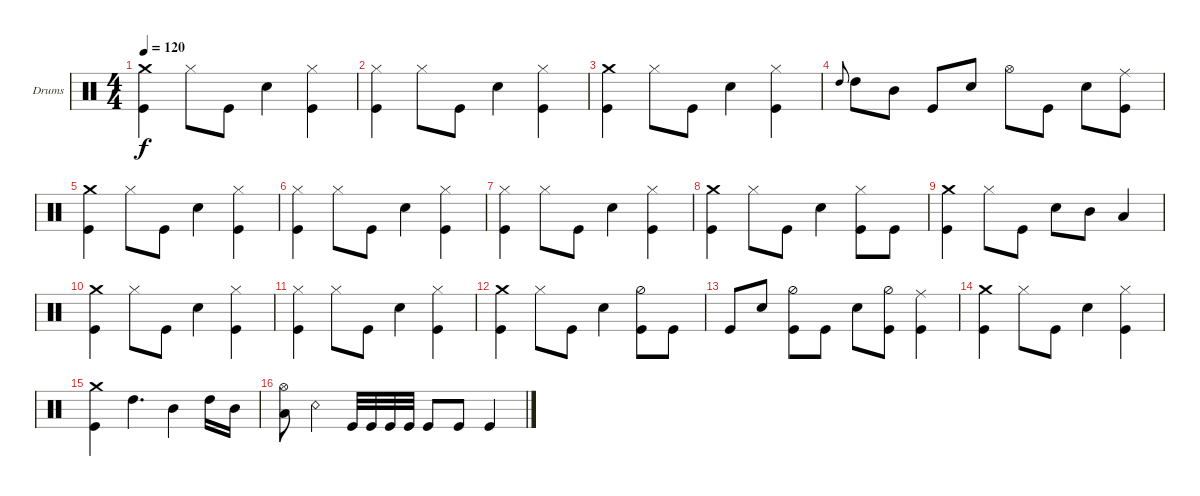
\bracketExtendMode groupsimilarinstruments
\firstSystemTrackNameOrientation horizontal
\otherSystemsTrackNameOrientation horizontal
\track ("Drumkit" "Drums") {instrument percussion}
\staff {score}
\articulation defaults
\ts (4 4)
\tempo 120
\clef neutral
\scale
0.333333
\ks c
("Kick (hit)" "Crash medium (hit)").4{dy f} "Hi-Hat (closed)".8 "Kick (hit)".8 "Snare (hit) 2".4 ("Hi-Hat (closed)" "Kick (hit)").4 |
\scale
0.333333 ("Kick (hit)" "Hi-Hat (closed)").4 "Hi-Hat (closed)".8 "Kick (hit)".8 "Snare (hit) 2".4 ("Kick (hit)" "Hi-Hat (closed)").4 |
\scale
0.333333 ("Kick (hit)" "Crash medium (hit)").4 "Hi-Hat (closed)".8 "Kick (hit)".8 "Snare (hit) 2".4 ("Hi-Hat (closed)" "Kick (hit)").4 |
\scale
0.333333 "High Tom (hit)".8{gr onbeat} "High Tom (hit)".8 "Mid Tom (hit)".8 "Kick (hit)".8 "Snare (hit) 2".8 "Hi-Hat (open)".8 "Kick (hit)".8 "Snare (hit) 2".8 ("Kick (hit)" "Ride (middle)").8 |
\scale
0.333333 ("Kick (hit)" "Crash medium (hit)").4 "Hi-Hat (closed)".8 "Kick (hit)".8 "Snare (hit) 2".4 ("Hi-Hat (closed)" "Kick (hit)").4 |
\scale
0.333333 ("Hi-Hat (closed)" "Kick (hit)").4 "Hi-Hat (closed)".8 "Kick (hit)".8 "Snare (hit) 2".4 ("Hi-Hat (closed)" "Kick (hit)").4 |
\scale
0.333333 ("Hi-Hat (closed)" "Kick (hit)").4 "Hi-Hat (closed)".8 "Kick (hit)".8 "Snare (hit) 2".4 ("Hi-Hat (closed)" "Kick (hit)").4 |
\scale
0.333333 ("Kick (hit)" "Crash medium (hit)").4 "Hi-Hat (closed)".8 "Kick (hit)".8 "Snare (hit) 2".4 ("Kick (hit)" "Hi-Hat (closed)").8 "Kick (hit)".8 |
\scale
0.333333 ("Kick (hit)" "Crash medium (hit)").4 "Hi-Hat (closed)".8 "Kick (hit)".8 "Snare (hit) 2".8 "Mid Tom (hit)".8 "Low Tom (hit)".4 |
\scale
0.333333 ("Kick (hit)" "Crash medium (hit)").4 "Hi-Hat (closed)".8 "Kick (hit)".8 "Snare (hit) 2".4 ("Hi-Hat (closed)" "Kick (hit)").4 |
\scale
0.333333 ("Hi-Hat (closed)" "Kick (hit)").4 "Hi-Hat (closed)".8 "Kick (hit)".8 "Snare (hit) 2".4 ("Hi-Hat (closed)" "Kick (hit)").4 |
\scale
0.333333 ("Kick (hit)" "Crash medium (hit)").4 "Hi-Hat (closed)".8 "Kick (hit)".8 "Snare (hit) 2".4 ("Hi-Hat (half)" "Kick (hit)").8 "Kick (hit)".8 |
\scale
0.333333 "Kick (hit)".8 "Snare (hit) 2".8 ("Kick (hit)" "Hi-Hat (half)").8 "Kick (hit)".8 "Snare (hit) 2".8 ("Kick (hit)" "Hi-Hat (half)").8 ("Kick (hit)" "Ride (middle)").4 |
\scale
0.333333 ("Kick (hit)" "Crash medium (hit)").4 "Hi-Hat (closed)".8 "Kick (hit)".8 "Snare (hit) 2".4 ("Hi-Hat (closed)" "Kick (hit)").4 |
\scale
0.333333 ("Kick (hit)" "Crash medium (hit)").4 "High Tom (hit)".4{d} "Mid Tom (hit)".4 "High Tom (hit)".16 "Mid Tom (hit)".16 |
\scale
0.333333 ("Low Tom (hit)" "Hi-Hat (open)").8 "Snare (rim shot)".4 "Kick (hit)".32 "Kick (hit)".32 "Kick (hit)".32 "Kick (hit)".32 "Kick (hit)".8 "Kick (hit)".8 "Kick (hit)".4
